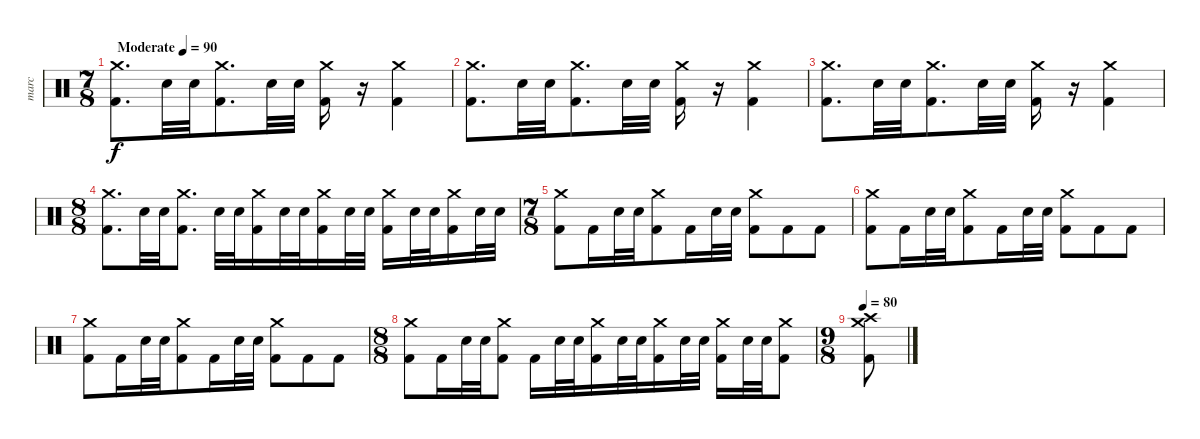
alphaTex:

\track ("marc" "marc") {instrument percussion}
\staff {score}
\articulation defaults
\ts (7 8)
\tempo (90 "Moderate")
\clef neutral
\ks c
("Crash medium (hit)" "Kick (hit) 2").8{d dy f} "Electric Snare (hit)".32 "Electric Snare (hit)".32 ("Crash medium (hit)" "Kick (hit) 2").8{d} "Electric Snare (hit)".32 "Electric Snare (hit)".32 ("Crash medium (hit)" "Kick (hit) 2").16 r.16 ("Crash medium (hit)" "Kick (hit) 2").4 |
("Crash medium (hit)" "Kick (hit) 2").8{d} "Electric Snare (hit)".32 "Electric Snare (hit)".32 ("Crash medium (hit)" "Kick (hit) 2").8{d} "Electric Snare (hit)".32 "Electric Snare (hit)".32 ("Crash medium (hit)" "Kick (hit) 2").16 r.16 ("Crash medium (hit)" "Kick (hit) 2").4 |
("Crash medium (hit)" "Kick (hit) 2").8{d} "Electric Snare (hit)".32 "Electric Snare (hit)".32 ("Crash medium (hit)" "Kick (hit) 2").8{d} "Electric Snare (hit)".32 "Electric Snare (hit)".32 ("Crash medium (hit)" "Kick (hit) 2").16 r.16 ("Crash medium (hit)" "Kick (hit) 2").4 |
\ts (8 8)
("Crash medium (hit)" "Kick (hit) 2").8{d} "Electric Snare (hit)".32 "Electric Snare (hit)".32 ("Crash medium (hit)" "Kick (hit) 2").8{d} "Electric Snare (hit)".32 "Electric Snare (hit)".32 ("Crash medium (hit)" "Kick (hit) 2").16 "Electric Snare (hit)".32 "Electric Snare (hit)".32 ("Crash medium (hit)" "Kick (hit) 2").16 "Electric Snare (hit)".32 "Electric Snare (hit)".32 ("Crash medium (hit)" "Kick (hit) 2").16 "Electric Snare (hit)".32 "Electric Snare (hit)".32 ("Crash medium (hit)" "Kick (hit) 2").16 "Electric Snare (hit)".32 "Electric Snare (hit)".32 |
\ts (7 8)
("Crash medium (hit)" "Kick (hit) 2").8 "Kick (hit) 2".16 "Electric Snare (hit)".32 "Electric Snare (hit)".32 ("Crash medium (hit)" "Kick (hit) 2").8 "Kick (hit) 2".16 "Electric Snare (hit)".32 "Electric Snare (hit)".32 ("Crash medium (hit)" "Kick (hit) 2").8 "Kick (hit) 2".8 "Kick (hit) 2".8 |
("Crash medium (hit)" "Kick (hit) 2").8 "Kick (hit) 2".16 "Electric Snare (hit)".32 "Electric Snare (hit)".32 ("Crash medium (hit)" "Kick (hit) 2").8 "Kick (hit) 2".16 "Electric Snare (hit)".32 "Electric Snare (hit)".32 ("Crash medium (hit)" "Kick (hit) 2").8 "Kick (hit) 2".8 "Kick (hit) 2".8 |
("Crash medium (hit)" "Kick (hit) 2").8 "Kick (hit) 2".16 "Electric Snare (hit)".32 "Electric Snare (hit)".32 ("Crash medium (hit)" "Kick (hit) 2").8 "Kick (hit) 2".16 "Electric Snare (hit)".32 "Electric Snare (hit)".32 ("Crash medium (hit)" "Kick (hit) 2").8 "Kick (hit) 2".8 "Kick (hit) 2".8 |
\ts (8 8)
("Crash medium (hit)" "Kick (hit) 2").8 "Kick (hit) 2".16 "Electric Snare (hit)".32 "Electric Snare (hit)".32 ("Crash medium (hit)" "Kick (hit) 2").8 "Kick (hit) 2".16 "Electric Snare (hit)".32 "Electric Snare (hit)".32 ("Crash medium (hit)" "Kick (hit) 2").16 "Electric Snare (hit)".32 "Electric Snare (hit)".32 ("Crash medium (hit)" "Kick (hit) 2").16 "Electric Snare (hit)".32 "Electric Snare (hit)".32 ("Crash medium (hit)" "Kick (hit) 2").16 "Electric Snare (hit)".32 "Electric Snare (hit)".32 ("Crash medium (hit)" "Kick (hit) 2").8 |
\ts (9 8)
\tempo 80
("Crash high (hit)" "Crash medium (hit)" "Kick (hit) 2").8
